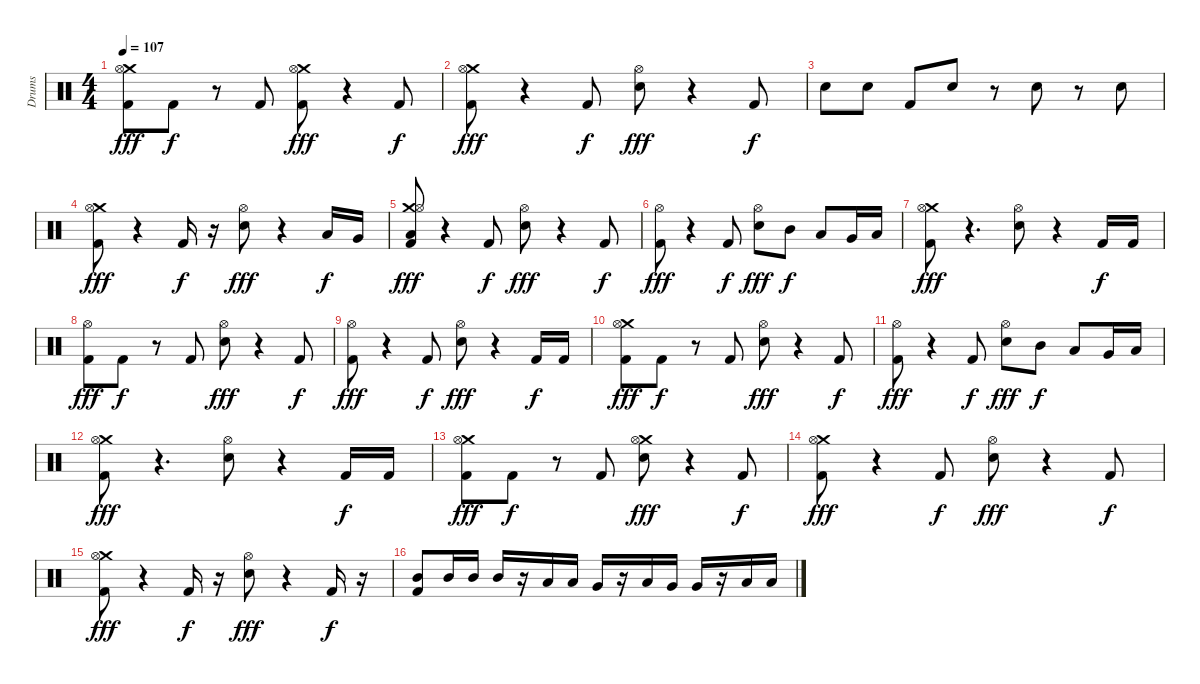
\track ("Drums" "Drums") {instrument percussion}
\staff {score}
\articulation defaults
\ts (4 4)
\tempo 107
\clef neutral
\ks c
("Kick (hit) 2" "Crash medium (hit)" "Hi-Hat (open)").8{dy fff} "Kick (hit) 2".8{dy f} r.8 "Kick (hit) 2".8 ("Crash medium (hit)" "Kick (hit) 2" "Hi-Hat (open)").8{dy fff} r.4 "Kick (hit) 2".8{dy f} |
("Crash medium (hit)" "Kick (hit) 2" "Hi-Hat (open)").8{dy fff} r.4 "Kick (hit) 2".8{dy f} ("Snare (hit) 2" "Hi-Hat (open)").8{dy fff} r.4 "Kick (hit) 2".8{dy f} |
"Snare (hit) 2".8 "Snare (hit) 2".8 "Kick (hit) 2".8 "Snare (hit) 2".8 r.8 "Snare (hit) 2".8 r.8 "Snare (hit) 2".8 |
("Crash medium (hit)" "Kick (hit) 2" "Hi-Hat (open)").8{dy fff} r.4 "Kick (hit) 2".16{dy f} r.16 ("Snare (hit) 2" "Hi-Hat (open)").8{dy fff} r.4 "Low Tom (hit)".16{dy f} "Very Low Tom (hit)".16 |
("Crash medium (hit)" "Low Floor Tom (hit)" "Kick (hit) 2" "Hi-Hat (open)").8{dy fff} r.4 "Kick (hit) 2".8{dy f} ("Snare (hit) 2" "Hi-Hat (open)").8{dy fff} r.4 "Kick (hit) 2".8{dy f} |
("Kick (hit) 2" "Hi-Hat (open)").8{dy fff} r.4 "Kick (hit) 2".8{dy f} ("Snare (hit) 2" "Hi-Hat (open)").8{dy fff} "Mid Tom (hit)".8{dy f} "Low Tom (hit)".8 "Very Low Tom (hit)".16 "Low Floor Tom (hit)".16 |
("Kick (hit) 2" "Crash medium (hit)" "Hi-Hat (open)").8{dy fff} r.4{d} ("Hi-Hat (open)" "Snare (hit) 2").8 r.4 "Kick (hit) 2".16{dy f} "Kick (hit) 2".16 |
("Kick (hit) 2" "Hi-Hat (open)").8{dy fff} "Kick (hit) 2".8{dy f} r.8 "Kick (hit) 2".8 ("Snare (hit) 2" "Hi-Hat (open)").8{dy fff} r.4 "Kick (hit) 2".8{dy f} |
("Kick (hit) 2" "Hi-Hat (open)").8{dy fff} r.4 "Kick (hit) 2".8{dy f} ("Snare (hit) 2" "Hi-Hat (open)").8{dy fff} r.4 "Kick (hit) 2".16{dy f} "Kick (hit) 2".16 |
("Kick (hit) 2" "Crash medium (hit)" "Hi-Hat (open)").8{dy fff} "Kick (hit) 2".8{dy f} r.8 "Kick (hit) 2".8 ("Hi-Hat (open)" "Snare (hit) 2").8{dy fff} r.4 "Kick (hit) 2".8{dy f} |
("Hi-Hat (open)" "Kick (hit) 2").8{dy fff} r.4 "Kick (hit) 2".8{dy f} ("Snare (hit) 2" "Hi-Hat (open)").8{dy fff} "Mid Tom (hit)".8{dy f} "Low Tom (hit)".8 "Very Low Tom (hit)".16 "Low Floor Tom (hit)".16 |
("Kick (hit) 2" "Crash medium (hit)" "Hi-Hat (open)").8{dy fff} r.4{d} ("Hi-Hat (open)" "Snare (hit) 2").8 r.4 "Kick (hit) 2".16{dy f} "Kick (hit) 2".16 |
("Kick (hit) 2" "Crash medium (hit)" "Hi-Hat (open)").8{dy fff} "Kick (hit) 2".8{dy f} r.8 "Kick (hit) 2".8 ("Crash medium (hit)" "Snare (hit) 2" "Hi-Hat (open)").8{dy fff} r.4 "Kick (hit) 2".8{dy f} |
("Crash medium (hit)" "Kick (hit) 2" "Hi-Hat (open)").8{dy fff} r.4 "Kick (hit) 2".8{dy f} ("Snare (hit) 2" "Hi-Hat (open)").8{dy fff} r.4 "Kick (hit) 2".8{dy f} |
("Kick (hit) 2" "Crash medium (hit)" "Hi-Hat (open)").8{dy fff} r.4 "Kick (hit) 2".16{dy f} r.16 ("Snare (hit) 2" "Hi-Hat (open)").8{dy fff} r.4 "Kick (hit) 2".16{dy f} r.16 |
("Kick (hit) 2" "Mid Tom (hit)").8 "Mid Tom (hit)".16 "Mid Tom (hit)".16 "Mid Tom (hit)".16 r.16 "Low Tom (hit)".16 "Low Tom (hit)".16 "Very Low Tom (hit)".16 r.16 "Low Tom (hit)".16 "Very Low Tom (hit)".16 "Very Low Tom (hit)".16 r.16 "Low Floor Tom (hit)".16 "Low Floor Tom (hit)".16
